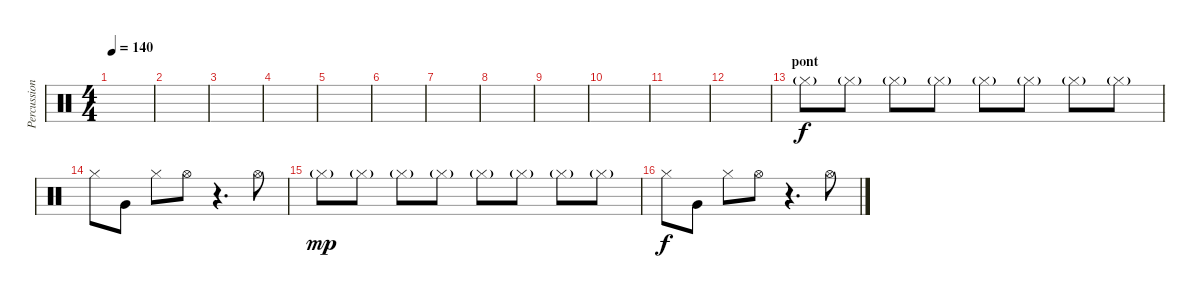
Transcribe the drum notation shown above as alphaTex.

\track ("Percussions" "Percussion") {instrument percussion}
\staff {score}
\articulation defaults
\ts (4 4)
\tempo 140
\clef neutral
\ks c
|
|
|
|
|
|
|
|
|
|
|
|
\section ("" "pont")
"Hi-Hat (closed)"{g}.8 "Hi-Hat (closed)"{g}.8 "Hi-Hat (closed)"{g}.8 "Hi-Hat (closed)"{g}.8 "Hi-Hat (closed)"{g}.8 "Hi-Hat (closed)"{g}.8 "Hi-Hat (closed)"{g}.8 "Hi-Hat (closed)"{g}.8 |
"Hi-Hat (closed)".8{dy f} "Very Low Tom (hit)".8 "Hi-Hat (closed)".8 "Hi-Hat (open)".8 r.4{d} "Hi-Hat (open)".8 |
"Hi-Hat (closed)"{g}.8{dy mp} "Hi-Hat (closed)"{g}.8 "Hi-Hat (closed)"{g}.8 "Hi-Hat (closed)"{g}.8 "Hi-Hat (closed)"{g}.8 "Hi-Hat (closed)"{g}.8 "Hi-Hat (closed)"{g}.8 "Hi-Hat (closed)"{g}.8 |
"Hi-Hat (closed)".8{dy f} "Very Low Tom (hit)".8 "Hi-Hat (closed)".8 "Hi-Hat (open)".8 r.4{d} "Hi-Hat (open)".8
